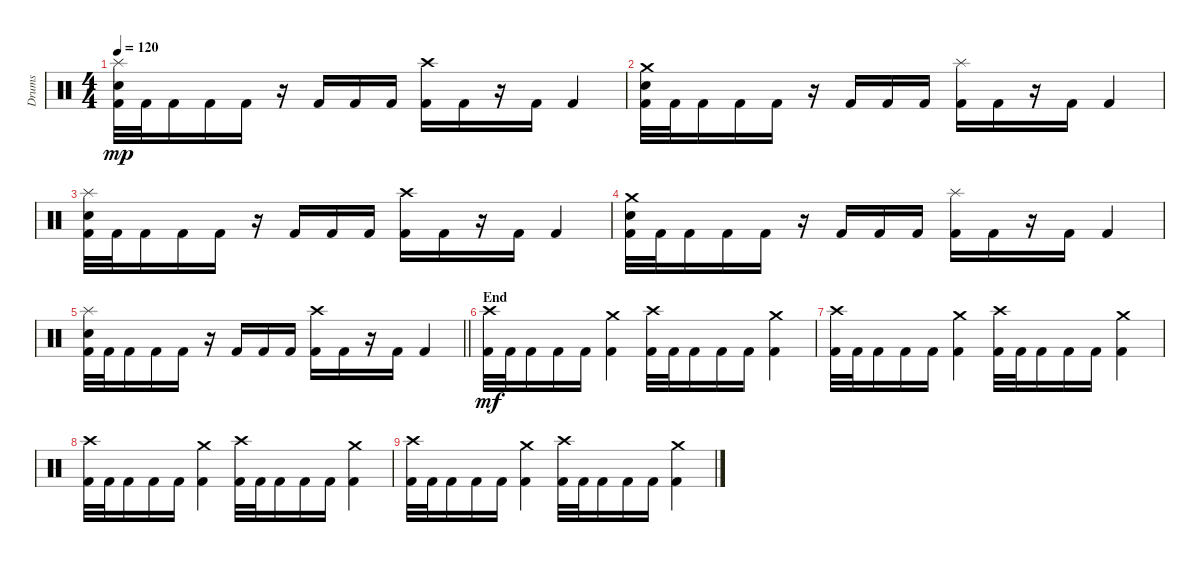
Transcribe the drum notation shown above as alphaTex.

\track ("Drums" "Drums") {instrument percussion}
\staff {score}
\articulation defaults
\ts (4 4)
\tempo 120
\clef neutral
\ks c
("Splash (hit)" "Electric Snare (hit)" "Kick (hit) 2").32{dy mp} "Kick (hit) 2".32 "Kick (hit) 2".16 "Kick (hit) 2".16 "Kick (hit) 2".16 r.16 "Kick (hit) 2".16 "Kick (hit) 2".16 "Kick (hit) 2".16 ("Crash high (hit)" "Kick (hit) 2").16 "Kick (hit) 2".16 r.16 "Kick (hit) 2".16 "Kick (hit) 2".4 |
("Crash medium (hit)" "Electric Snare (hit)" "Kick (hit) 2").32 "Kick (hit) 2".32 "Kick (hit) 2".16 "Kick (hit) 2".16 "Kick (hit) 2".16 r.16 "Kick (hit) 2".16 "Kick (hit) 2".16 "Kick (hit) 2".16 ("Splash (hit)" "Kick (hit) 2").16 "Kick (hit) 2".16 r.16 "Kick (hit) 2".16 "Kick (hit) 2".4 |
("Splash (hit)" "Electric Snare (hit)" "Kick (hit) 2").32 "Kick (hit) 2".32 "Kick (hit) 2".16 "Kick (hit) 2".16 "Kick (hit) 2".16 r.16 "Kick (hit) 2".16 "Kick (hit) 2".16 "Kick (hit) 2".16 ("Crash high (hit)" "Kick (hit) 2").16 "Kick (hit) 2".16 r.16 "Kick (hit) 2".16 "Kick (hit) 2".4 |
("Crash medium (hit)" "Electric Snare (hit)" "Kick (hit) 2").32 "Kick (hit) 2".32 "Kick (hit) 2".16 "Kick (hit) 2".16 "Kick (hit) 2".16 r.16 "Kick (hit) 2".16 "Kick (hit) 2".16 "Kick (hit) 2".16 ("Splash (hit)" "Kick (hit) 2").16 "Kick (hit) 2".16 r.16 "Kick (hit) 2".16 "Kick (hit) 2".4 |
\barLineRight lightlight
("Splash (hit)" "Electric Snare (hit)" "Kick (hit) 2").32 "Kick (hit) 2".32 "Kick (hit) 2".16 "Kick (hit) 2".16 "Kick (hit) 2".16 r.16 "Kick (hit) 2".16 "Kick (hit) 2".16 "Kick (hit) 2".16 ("Crash high (hit)" "Kick (hit) 2").16 "Kick (hit) 2".16 r.16 "Kick (hit) 2".16 "Kick (hit) 2".4 |
\section ("" "End")
("Crash high (hit)" "Kick (hit) 2").32{dy mf} "Kick (hit) 2".32 "Kick (hit) 2".16 "Kick (hit) 2".16 "Kick (hit) 2".16 ("Crash medium (hit)" "Kick (hit) 2").4 ("Crash high (hit)" "Kick (hit) 2").32 "Kick (hit) 2".32 "Kick (hit) 2".16 "Kick (hit) 2".16 "Kick (hit) 2".16 ("Crash medium (hit)" "Kick (hit) 2").4 |
("Crash high (hit)" "Kick (hit) 2").32 "Kick (hit) 2".32 "Kick (hit) 2".16 "Kick (hit) 2".16 "Kick (hit) 2".16 ("Crash medium (hit)" "Kick (hit) 2").4 ("Crash high (hit)" "Kick (hit) 2").32 "Kick (hit) 2".32 "Kick (hit) 2".16 "Kick (hit) 2".16 "Kick (hit) 2".16 ("Crash medium (hit)" "Kick (hit) 2").4 |
("Crash high (hit)" "Kick (hit) 2").32 "Kick (hit) 2".32 "Kick (hit) 2".16 "Kick (hit) 2".16 "Kick (hit) 2".16 ("Crash medium (hit)" "Kick (hit) 2").4 ("Crash high (hit)" "Kick (hit) 2").32 "Kick (hit) 2".32 "Kick (hit) 2".16 "Kick (hit) 2".16 "Kick (hit) 2".16 ("Crash medium (hit)" "Kick (hit) 2").4 |
("Crash high (hit)" "Kick (hit) 2").32 "Kick (hit) 2".32 "Kick (hit) 2".16 "Kick (hit) 2".16 "Kick (hit) 2".16 ("Crash medium (hit)" "Kick (hit) 2").4 ("Crash high (hit)" "Kick (hit) 2").32 "Kick (hit) 2".32 "Kick (hit) 2".16 "Kick (hit) 2".16 "Kick (hit) 2".16 ("Crash medium (hit)" "Kick (hit) 2").4
